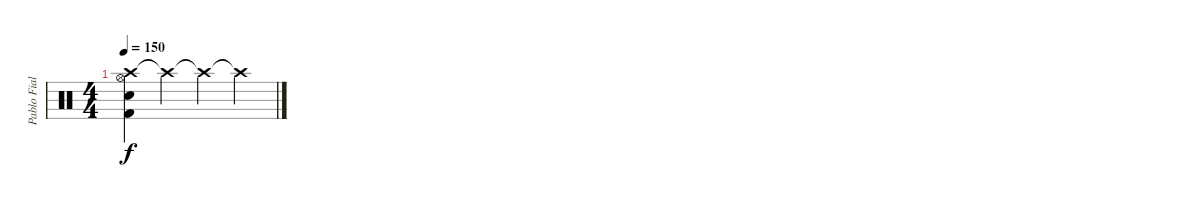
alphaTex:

\track ("Pablo Fiallo" "Pablo Fial") {instrument percussion}
\staff {score}
\articulation defaults
\ts (4 4)
\tempo 150
\clef neutral
\ks c
("Crash high (hit)" "Hi-Hat (open)" "Snare (hit) 2" "Kick (hit) 2").4{dy f} "Crash high (hit)"{t}.4 "Crash high (hit)"{t}.4 "Crash high (hit)"{t}.4
